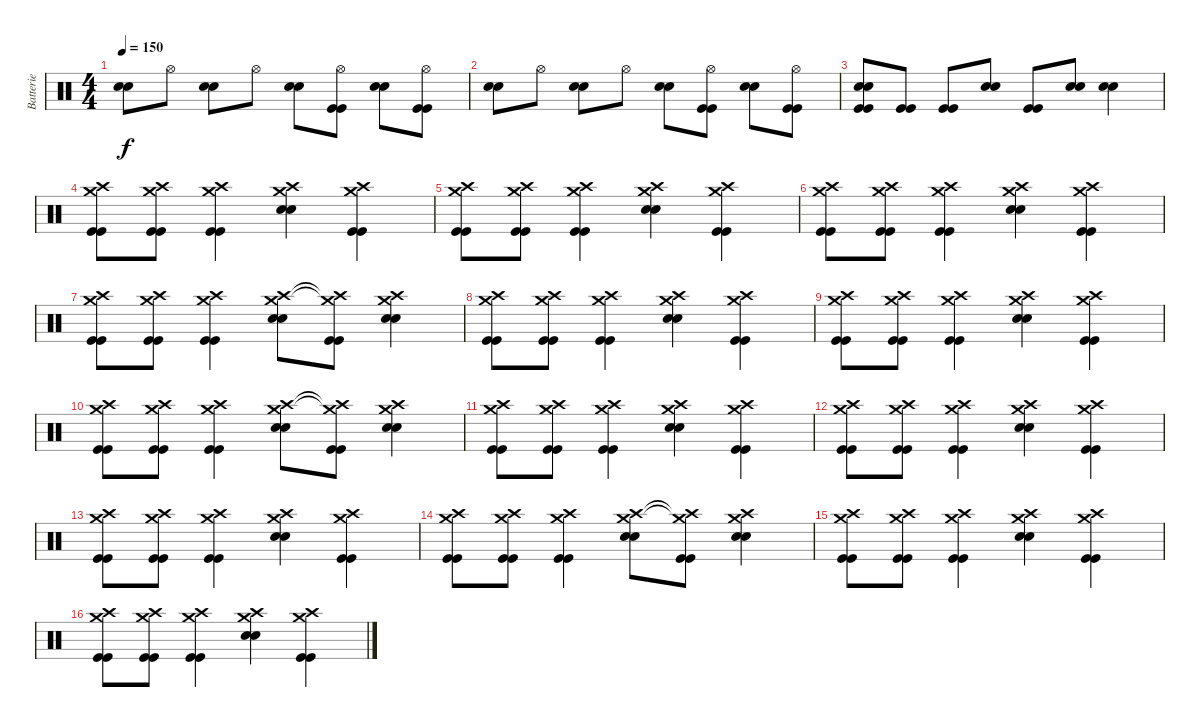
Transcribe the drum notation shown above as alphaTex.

\track ("Batterie" "Batterie") {instrument percussion}
\staff {score}
\articulation defaults
\ts (4 4)
\tempo 150
\clef neutral
\ks c
("Electric Snare (hit)" "Electric Snare (hit)").8{dy f} "Hi-Hat (open)".8 ("Electric Snare (hit)" "Electric Snare (hit)").8 "Hi-Hat (open)".8 ("Electric Snare (hit)" "Electric Snare (hit)").8 ("Hi-Hat (open)" "Kick (hit)" "Kick (hit)").8 ("Electric Snare (hit)" "Electric Snare (hit)").8 ("Hi-Hat (open)" "Kick (hit)" "Kick (hit)").8 |
("Electric Snare (hit)" "Electric Snare (hit)").8 "Hi-Hat (open)".8 ("Electric Snare (hit)" "Electric Snare (hit)").8 "Hi-Hat (open)".8 ("Electric Snare (hit)" "Electric Snare (hit)").8 ("Hi-Hat (open)" "Kick (hit)" "Kick (hit)").8 ("Electric Snare (hit)" "Electric Snare (hit)").8 ("Hi-Hat (open)" "Kick (hit)" "Kick (hit)").8 |
("Electric Snare (hit)" "Electric Snare (hit)" "Kick (hit)" "Kick (hit)").8 ("Kick (hit)" "Kick (hit)").8 ("Kick (hit)" "Kick (hit)").8 ("Electric Snare (hit)" "Electric Snare (hit)").8 ("Kick (hit)" "Kick (hit)").8 ("Electric Snare (hit)" "Electric Snare (hit)").8 ("Electric Snare (hit)" "Electric Snare (hit)").4 |
("Crash high (hit)" "Crash medium (hit)" "Kick (hit)" "Kick (hit)").8 ("Crash high (hit)" "Crash medium (hit)" "Kick (hit)" "Kick (hit)").8 ("Crash high (hit)" "Crash medium (hit)" "Kick (hit)" "Kick (hit)").4 ("Crash high (hit)" "Crash medium (hit)" "Electric Snare (hit)" "Electric Snare (hit)").4 ("Crash high (hit)" "Crash medium (hit)" "Kick (hit)" "Kick (hit)").4 |
("Crash high (hit)" "Crash medium (hit)" "Kick (hit)" "Kick (hit)").8 ("Crash high (hit)" "Crash medium (hit)" "Kick (hit)" "Kick (hit)").8 ("Crash high (hit)" "Crash medium (hit)" "Kick (hit)" "Kick (hit)").4 ("Crash high (hit)" "Crash medium (hit)" "Electric Snare (hit)" "Electric Snare (hit)").4 ("Crash high (hit)" "Crash medium (hit)" "Kick (hit)" "Kick (hit)").4 |
("Crash high (hit)" "Crash medium (hit)" "Kick (hit)" "Kick (hit)").8 ("Crash high (hit)" "Crash medium (hit)" "Kick (hit)" "Kick (hit)").8 ("Crash high (hit)" "Crash medium (hit)" "Kick (hit)" "Kick (hit)").4 ("Crash high (hit)" "Crash medium (hit)" "Electric Snare (hit)" "Electric Snare (hit)").4 ("Crash high (hit)" "Crash medium (hit)" "Kick (hit)" "Kick (hit)").4 |
("Crash high (hit)" "Crash medium (hit)" "Kick (hit)" "Kick (hit)").8 ("Crash high (hit)" "Crash medium (hit)" "Kick (hit)" "Kick (hit)").8 ("Crash high (hit)" "Crash medium (hit)" "Kick (hit)" "Kick (hit)").4 ("Crash high (hit)" "Crash medium (hit)" "Electric Snare (hit)" "Electric Snare (hit)").8 ("Crash high (hit)"{t} "Crash medium (hit)"{t} "Kick (hit)" "Kick (hit)").8 ("Crash high (hit)" "Crash medium (hit)" "Electric Snare (hit)" "Electric Snare (hit)").4 |
("Crash high (hit)" "Crash medium (hit)" "Kick (hit)" "Kick (hit)").8 ("Crash high (hit)" "Crash medium (hit)" "Kick (hit)" "Kick (hit)").8 ("Crash high (hit)" "Crash medium (hit)" "Kick (hit)" "Kick (hit)").4 ("Crash high (hit)" "Crash medium (hit)" "Electric Snare (hit)" "Electric Snare (hit)").4 ("Crash high (hit)" "Crash medium (hit)" "Kick (hit)" "Kick (hit)").4 |
("Crash high (hit)" "Crash medium (hit)" "Kick (hit)" "Kick (hit)").8 ("Crash high (hit)" "Crash medium (hit)" "Kick (hit)" "Kick (hit)").8 ("Crash high (hit)" "Crash medium (hit)" "Kick (hit)" "Kick (hit)").4 ("Crash high (hit)" "Crash medium (hit)" "Electric Snare (hit)" "Electric Snare (hit)").4 ("Crash high (hit)" "Crash medium (hit)" "Kick (hit)" "Kick (hit)").4 |
("Crash high (hit)" "Crash medium (hit)" "Kick (hit)" "Kick (hit)").8 ("Crash high (hit)" "Crash medium (hit)" "Kick (hit)" "Kick (hit)").8 ("Crash high (hit)" "Crash medium (hit)" "Kick (hit)" "Kick (hit)").4 ("Crash high (hit)" "Crash medium (hit)" "Electric Snare (hit)" "Electric Snare (hit)").8 ("Crash high (hit)"{t} "Crash medium (hit)"{t} "Kick (hit)" "Kick (hit)").8 ("Crash high (hit)" "Crash medium (hit)" "Electric Snare (hit)" "Electric Snare (hit)").4 |
("Crash high (hit)" "Crash medium (hit)" "Kick (hit)" "Kick (hit)").8 ("Crash high (hit)" "Crash medium (hit)" "Kick (hit)" "Kick (hit)").8 ("Crash high (hit)" "Crash medium (hit)" "Kick (hit)" "Kick (hit)").4 ("Crash high (hit)" "Crash medium (hit)" "Electric Snare (hit)" "Electric Snare (hit)").4 ("Crash high (hit)" "Crash medium (hit)" "Kick (hit)" "Kick (hit)").4 |
("Crash high (hit)" "Crash medium (hit)" "Kick (hit)" "Kick (hit)").8 ("Crash high (hit)" "Crash medium (hit)" "Kick (hit)" "Kick (hit)").8 ("Crash high (hit)" "Crash medium (hit)" "Kick (hit)" "Kick (hit)").4 ("Crash high (hit)" "Crash medium (hit)" "Electric Snare (hit)" "Electric Snare (hit)").4 ("Crash high (hit)" "Crash medium (hit)" "Kick (hit)" "Kick (hit)").4 |
("Crash high (hit)" "Crash medium (hit)" "Kick (hit)" "Kick (hit)").8 ("Crash high (hit)" "Crash medium (hit)" "Kick (hit)" "Kick (hit)").8 ("Crash high (hit)" "Crash medium (hit)" "Kick (hit)" "Kick (hit)").4 ("Crash high (hit)" "Crash medium (hit)" "Electric Snare (hit)" "Electric Snare (hit)").4 ("Crash high (hit)" "Crash medium (hit)" "Kick (hit)" "Kick (hit)").4 |
("Crash high (hit)" "Crash medium (hit)" "Kick (hit)" "Kick (hit)").8 ("Crash high (hit)" "Crash medium (hit)" "Kick (hit)" "Kick (hit)").8 ("Crash high (hit)" "Crash medium (hit)" "Kick (hit)" "Kick (hit)").4 ("Crash high (hit)" "Crash medium (hit)" "Electric Snare (hit)" "Electric Snare (hit)").8 ("Crash high (hit)"{t} "Crash medium (hit)"{t} "Kick (hit)" "Kick (hit)").8 ("Crash high (hit)" "Crash medium (hit)" "Electric Snare (hit)" "Electric Snare (hit)").4 |
("Crash high (hit)" "Crash medium (hit)" "Kick (hit)" "Kick (hit)").8 ("Crash high (hit)" "Crash medium (hit)" "Kick (hit)" "Kick (hit)").8 ("Crash high (hit)" "Crash medium (hit)" "Kick (hit)" "Kick (hit)").4 ("Crash high (hit)" "Crash medium (hit)" "Electric Snare (hit)" "Electric Snare (hit)").4 ("Crash high (hit)" "Crash medium (hit)" "Kick (hit)" "Kick (hit)").4 |
("Crash high (hit)" "Crash medium (hit)" "Kick (hit)" "Kick (hit)").8 ("Crash high (hit)" "Crash medium (hit)" "Kick (hit)" "Kick (hit)").8 ("Crash high (hit)" "Crash medium (hit)" "Kick (hit)" "Kick (hit)").4 ("Crash high (hit)" "Crash medium (hit)" "Electric Snare (hit)" "Electric Snare (hit)").4 ("Crash high (hit)" "Crash medium (hit)" "Kick (hit)" "Kick (hit)").4
